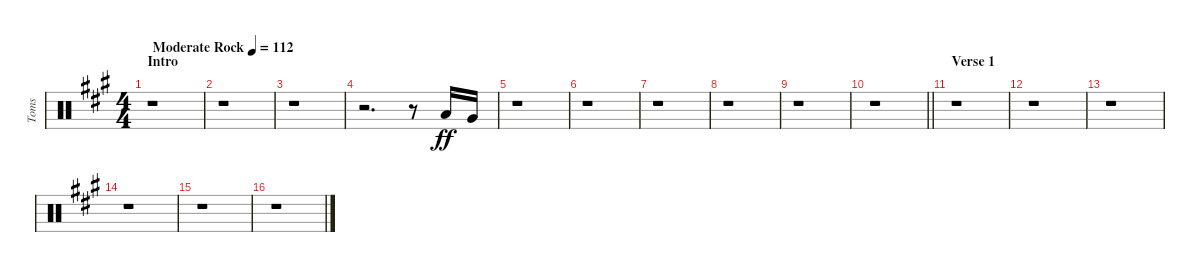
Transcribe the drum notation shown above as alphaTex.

\track ("Toms" "Toms") {instrument percussion}
\staff {score}
\articulation defaults
\ts (4 4)
\section ("" "Intro")
\tempo (112 "Moderate Rock")
\clef neutral
\ks f#minor
r.1{dy ff volume 16} |
r.1 |
r.1 |
r.2{d} r.8{beam Up} "Low Tom (hit)".16{beam Up} "Very Low Tom (hit)".16{beam Up} |
r.1 |
r.1 |
r.1 |
r.1 |
r.1 |
\barLineRight lightlight
r.1 |
\section ("" "Verse 1")
r.1 |
r.1 |
r.1 |
r.1 |
r.1 |
r.1
